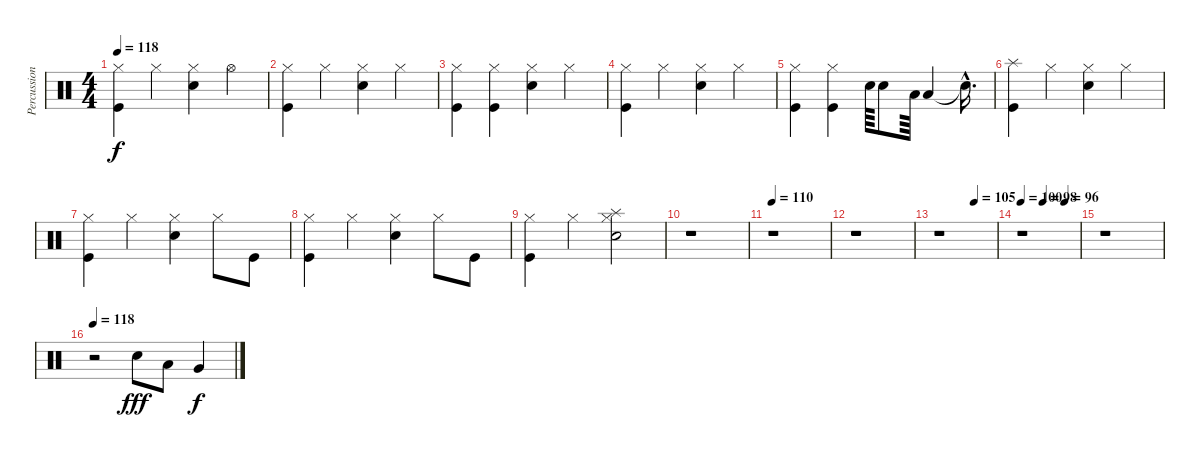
\track ("Percussioni" "Percussion") {instrument percussion}
\staff {score}
\articulation defaults
\ts (4 4)
\tempo 118
\clef neutral
\ks c
("Hi-Hat (closed)" "Kick (hit)").4{dy f} "Hi-Hat (closed)".4 ("Hi-Hat (closed)" "Snare (hit) 2").4 "Hi-Hat (open)".4 |
("Hi-Hat (closed)" "Kick (hit)").4 "Hi-Hat (closed)".4 ("Hi-Hat (closed)" "Snare (hit) 2").4 "Hi-Hat (closed)".4 |
("Hi-Hat (closed)" "Kick (hit)").4 ("Hi-Hat (closed)" "Kick (hit)").4 ("Hi-Hat (closed)" "Snare (hit) 2").4 "Hi-Hat (closed)".4 |
("Hi-Hat (closed)" "Kick (hit)").4 "Hi-Hat (closed)".4 ("Hi-Hat (closed)" "Snare (hit) 2").4 "Hi-Hat (closed)".4 |
("Hi-Hat (closed)" "Kick (hit)").4 ("Hi-Hat (closed)" "Kick (hit)").4 "Snare (hit) 2".64 "Snare (hit) 2".8 "Low Tom (hit)".64 "Low Tom (hit)".4 "Snare (hit)"{hac t}.16{d} |
("Splash (hit)" "Kick (hit)").4 "Hi-Hat (closed)".4 ("Hi-Hat (closed)" "Snare (hit) 2").4 "Hi-Hat (closed)".4 |
("Hi-Hat (closed)" "Kick (hit)").4 "Hi-Hat (closed)".4 ("Hi-Hat (closed)" "Snare (hit) 2").4 "Hi-Hat (closed)".8 "Kick (hit)".8 |
("Hi-Hat (closed)" "Kick (hit)").4 "Hi-Hat (closed)".4 ("Hi-Hat (closed)" "Snare (hit) 2").4 "Hi-Hat (closed)".8 "Kick (hit)".8 |
("Hi-Hat (closed)" "Kick (hit)").4 "Hi-Hat (closed)".4 ("Splash (hit)" "Hi-Hat (closed)" "Snare (hit) 2").2 |
r.1 |
\tempo 110
r.1 |
r.1 |
\tempo (105 0.625)
r.1 |
\tempo 100
\tempo (98 0.375)
\tempo (96 0.75)
r.1 |
r.1 |
\tempo 118
r.2 "Snare (hit) 2".8{dy fff} "Low Tom (hit)".8 "Very Low Tom (hit)".4{dy f}
